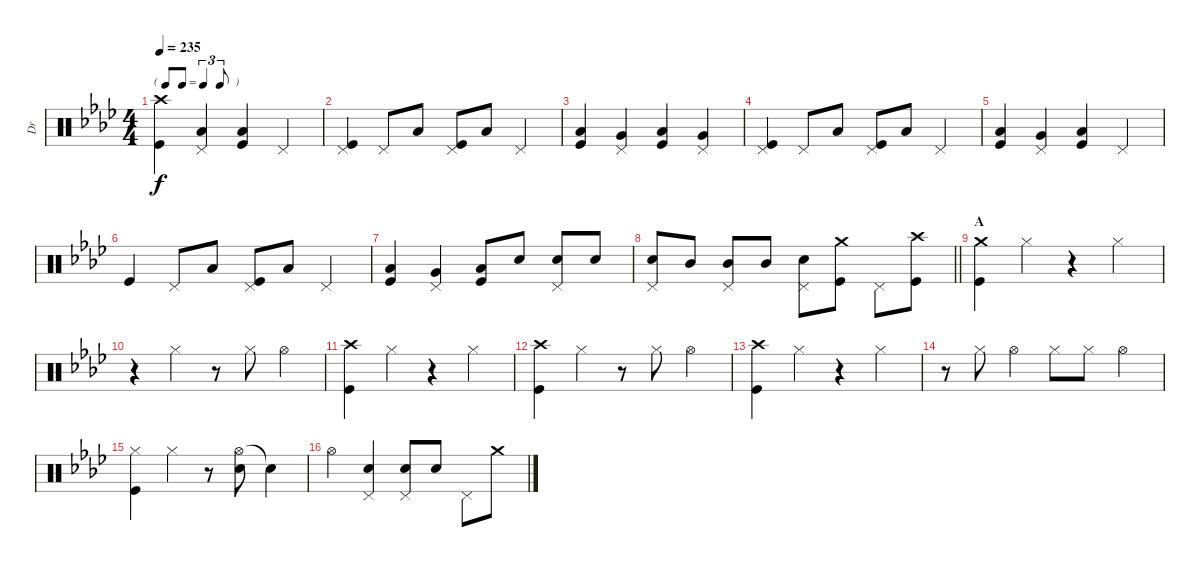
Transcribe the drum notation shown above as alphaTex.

\track ("Dr" "Dr") {instrument percussion}
\staff {score}
\articulation defaults
\ts (4 4)
\tf triplet8th
\section ("" "")
\tempo 235
\clef neutral
\ks ab
("Crash high (hit)" "Kick (hit)").4{dy f} ("Low Floor Tom (hit)" "Pedal Hi-Hat (hit)").4 ("Low Floor Tom (hit)" "Kick (hit)").4 "Pedal Hi-Hat (hit)".4 |
("Kick (hit)" "Pedal Hi-Hat (hit)").4 "Pedal Hi-Hat (hit)".8 "Low Floor Tom (hit)".8 ("Kick (hit)" "Pedal Hi-Hat (hit)").8 "Low Floor Tom (hit)".8 "Pedal Hi-Hat (hit)".4 |
("Low Floor Tom (hit)" "Kick (hit)").4 ("Very Low Tom (hit)" "Pedal Hi-Hat (hit)").4 ("Low Floor Tom (hit)" "Kick (hit)").4 ("Very Low Tom (hit)" "Pedal Hi-Hat (hit)").4 |
("Kick (hit)" "Pedal Hi-Hat (hit)").4 "Pedal Hi-Hat (hit)".8 "Low Floor Tom (hit)".8 ("Kick (hit)" "Pedal Hi-Hat (hit)").8 "Low Floor Tom (hit)".8 "Pedal Hi-Hat (hit)".4 |
("Low Floor Tom (hit)" "Kick (hit)").4 ("Very Low Tom (hit)" "Pedal Hi-Hat (hit)").4 ("Low Floor Tom (hit)" "Kick (hit)").4 "Pedal Hi-Hat (hit)".4 |
"Kick (hit)".4 "Pedal Hi-Hat (hit)".8 "Low Floor Tom (hit)".8 ("Kick (hit)" "Pedal Hi-Hat (hit)").8 "Low Floor Tom (hit)".8 "Pedal Hi-Hat (hit)".4 |
("Low Floor Tom (hit)" "Kick (hit)").4 ("Very Low Tom (hit)" "Pedal Hi-Hat (hit)").4 ("Low Floor Tom (hit)" "Kick (hit)").8 "Electric Snare (hit)".8 ("Electric Snare (hit)" "Pedal Hi-Hat (hit)").8 "Electric Snare (hit)".8 |
\barLineRight lightlight
("Electric Snare (hit)" "Pedal Hi-Hat (hit)").8 "Mid Tom (hit)".8 ("Mid Tom (hit)" "Pedal Hi-Hat (hit)").8 "Mid Tom (hit)".8 ("Electric Snare (hit)" "Pedal Hi-Hat (hit)").8 ("Crash medium (hit)" "Kick (hit)").8 "Pedal Hi-Hat (hit)".8 ("Crash high (hit)" "Kick (hit)").8 |
\section ("" "A")
("Crash medium (hit)" "Kick (hit)").4 "Hi-Hat (closed)".4 r.4 "Hi-Hat (closed)".4 |
r.4 "Hi-Hat (closed)".4 r.8 "Hi-Hat (closed)".8 "Hi-Hat (open)".4 |
("Crash high (hit)" "Kick (hit)").4 "Hi-Hat (closed)".4 r.4 "Hi-Hat (closed)".4 |
("Crash high (hit)" "Kick (hit)").4 "Hi-Hat (closed)".4 r.8 "Hi-Hat (closed)".8 "Hi-Hat (open)".4 |
("Crash high (hit)" "Kick (hit)").4 "Hi-Hat (closed)".4 r.4 "Hi-Hat (closed)".4 |
r.8 "Hi-Hat (closed)".8 "Hi-Hat (open)".4 "Hi-Hat (closed)".8 "Hi-Hat (closed)".8 "Hi-Hat (open)".4 |
("Hi-Hat (closed)" "Kick (hit)").4 "Hi-Hat (closed)".4 r.8 ("Hi-Hat (open)" "Electric Snare (hit)").8 "Snare (hit)"{t}.4 |
"Hi-Hat (open)".4 ("Electric Snare (hit)" "Pedal Hi-Hat (hit)").4 ("Electric Snare (hit)" "Pedal Hi-Hat (hit)").8 "Electric Snare (hit)".8 "Pedal Hi-Hat (hit)".8 "Crash medium (hit)".8
